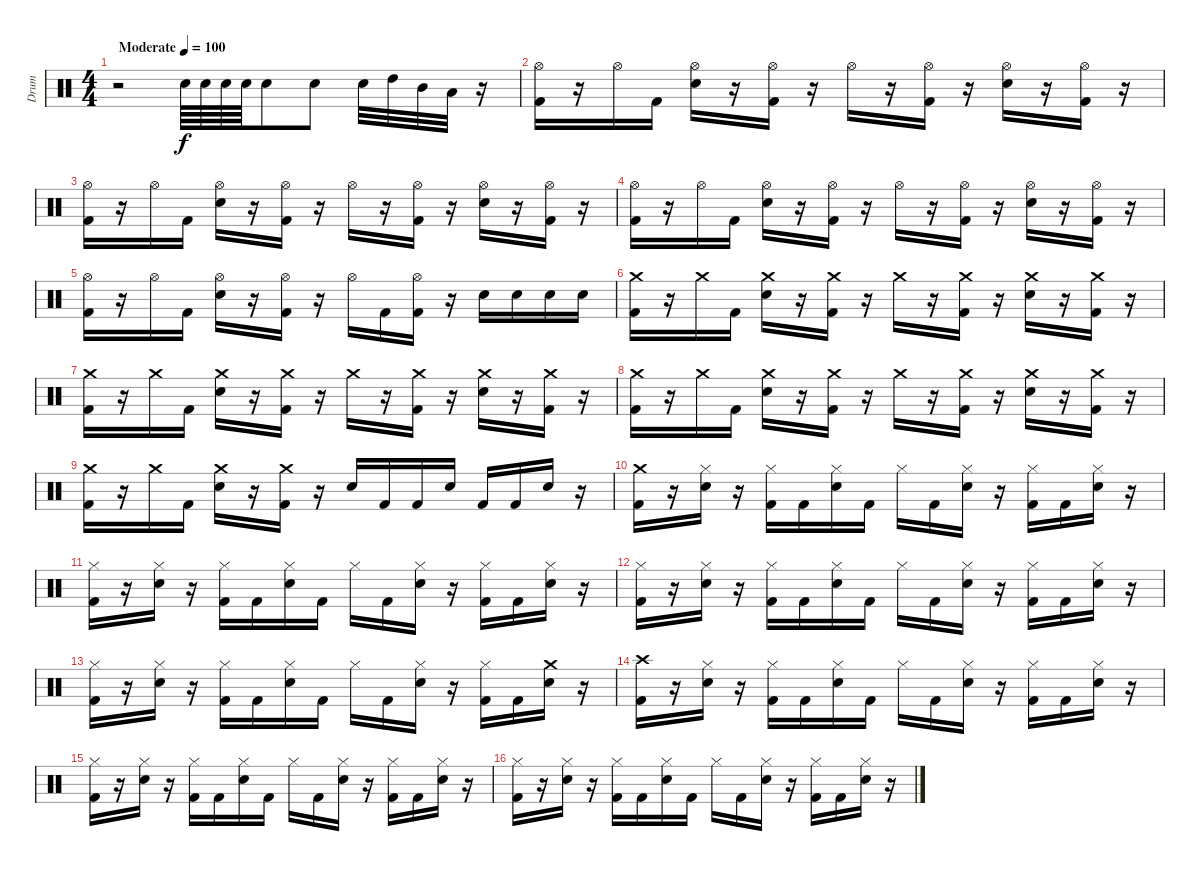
\track ("Drum" "Drum") {instrument percussion}
\staff {score}
\articulation defaults
\ts (4 4)
\tempo (100 "Moderate")
\clef neutral
\ks c
r.2{dy f} "Electric Snare (hit)".64 "Electric Snare (hit)".64 "Electric Snare (hit)".64 "Electric Snare (hit)".64 "Electric Snare (hit)".8 "Electric Snare (hit)".8 "Electric Snare (hit)".32 "High Tom (hit)".32 "Mid Tom (hit)".32 "Low Floor Tom (hit)".32 r.16 |
("Hi-Hat (open)" "Kick (hit) 2").16 r.16 "Hi-Hat (open)".16 "Kick (hit) 2".16 ("Hi-Hat (open)" "Electric Snare (hit)").16 r.16 ("Hi-Hat (open)" "Kick (hit) 2").16 r.16 "Hi-Hat (open)".16 r.16 ("Hi-Hat (open)" "Kick (hit) 2").16 r.16 ("Hi-Hat (open)" "Electric Snare (hit)").16 r.16 ("Hi-Hat (open)" "Kick (hit) 2").16 r.16 |
("Hi-Hat (open)" "Kick (hit) 2").16 r.16 "Hi-Hat (open)".16 "Kick (hit) 2".16 ("Hi-Hat (open)" "Electric Snare (hit)").16 r.16 ("Hi-Hat (open)" "Kick (hit) 2").16 r.16 "Hi-Hat (open)".16 r.16 ("Hi-Hat (open)" "Kick (hit) 2").16 r.16 ("Hi-Hat (open)" "Electric Snare (hit)").16 r.16 ("Hi-Hat (open)" "Kick (hit) 2").16 r.16 |
("Hi-Hat (open)" "Kick (hit) 2").16 r.16 "Hi-Hat (open)".16 "Kick (hit) 2".16 ("Hi-Hat (open)" "Electric Snare (hit)").16 r.16 ("Hi-Hat (open)" "Kick (hit) 2").16 r.16 "Hi-Hat (open)".16 r.16 ("Hi-Hat (open)" "Kick (hit) 2").16 r.16 ("Hi-Hat (open)" "Electric Snare (hit)").16 r.16 ("Hi-Hat (open)" "Kick (hit) 2").16 r.16 |
("Hi-Hat (open)" "Kick (hit) 2").16 r.16 "Hi-Hat (open)".16 "Kick (hit) 2".16 ("Hi-Hat (open)" "Electric Snare (hit)").16 r.16 ("Hi-Hat (open)" "Kick (hit) 2").16 r.16 "Hi-Hat (open)".16 "Kick (hit) 2".16 ("Hi-Hat (open)" "Kick (hit) 2").16 r.16 "Electric Snare (hit)".16 "Electric Snare (hit)".16 "Electric Snare (hit)".16 "Electric Snare (hit)".16 |
("Crash medium (hit)" "Kick (hit) 2").16 r.16 "Crash medium (hit)".16 "Kick (hit) 2".16 ("Crash medium (hit)" "Electric Snare (hit)").16 r.16 ("Crash medium (hit)" "Kick (hit) 2").16 r.16 "Crash medium (hit)".16 r.16 ("Crash medium (hit)" "Kick (hit) 2").16 r.16 ("Crash medium (hit)" "Electric Snare (hit)").16 r.16 ("Crash medium (hit)" "Kick (hit) 2").16 r.16 |
("Crash medium (hit)" "Kick (hit) 2").16 r.16 "Crash medium (hit)".16 "Kick (hit) 2".16 ("Crash medium (hit)" "Electric Snare (hit)").16 r.16 ("Crash medium (hit)" "Kick (hit) 2").16 r.16 "Crash medium (hit)".16 r.16 ("Crash medium (hit)" "Kick (hit) 2").16 r.16 ("Crash medium (hit)" "Electric Snare (hit)").16 r.16 ("Crash medium (hit)" "Kick (hit) 2").16 r.16 |
("Crash medium (hit)" "Kick (hit) 2").16 r.16 "Crash medium (hit)".16 "Kick (hit) 2".16 ("Crash medium (hit)" "Electric Snare (hit)").16 r.16 ("Crash medium (hit)" "Kick (hit) 2").16 r.16 "Crash medium (hit)".16 r.16 ("Crash medium (hit)" "Kick (hit) 2").16 r.16 ("Crash medium (hit)" "Electric Snare (hit)").16 r.16 ("Crash medium (hit)" "Kick (hit) 2").16 r.16 |
("Crash medium (hit)" "Kick (hit) 2").16 r.16 "Crash medium (hit)".16 "Kick (hit) 2".16 ("Crash medium (hit)" "Electric Snare (hit)").16 r.16 ("Crash medium (hit)" "Kick (hit) 2").16 r.16 "Electric Snare (hit)".16 "Kick (hit) 2".16 "Kick (hit) 2".16 "Electric Snare (hit)".16 "Kick (hit) 2".16 "Kick (hit) 2".16 "Electric Snare (hit)".16 r.16 |
("Crash medium (hit)" "Kick (hit) 2").16 r.16 ("Hi-Hat (closed)" "Electric Snare (hit)").16 r.16 ("Hi-Hat (closed)" "Kick (hit) 2").16 "Kick (hit) 2".16 ("Hi-Hat (closed)" "Electric Snare (hit)").16 "Kick (hit) 2".16 "Hi-Hat (closed)".16 "Kick (hit) 2".16 ("Hi-Hat (closed)" "Electric Snare (hit)").16 r.16 ("Hi-Hat (closed)" "Kick (hit) 2").16 "Kick (hit) 2".16 ("Hi-Hat (closed)" "Electric Snare (hit)").16 r.16 |
("Hi-Hat (closed)" "Kick (hit) 2").16 r.16 ("Hi-Hat (closed)" "Electric Snare (hit)").16 r.16 ("Hi-Hat (closed)" "Kick (hit) 2").16 "Kick (hit) 2".16 ("Hi-Hat (closed)" "Electric Snare (hit)").16 "Kick (hit) 2".16 "Hi-Hat (closed)".16 "Kick (hit) 2".16 ("Hi-Hat (closed)" "Electric Snare (hit)").16 r.16 ("Hi-Hat (closed)" "Kick (hit) 2").16 "Kick (hit) 2".16 ("Hi-Hat (closed)" "Electric Snare (hit)").16 r.16 |
("Hi-Hat (closed)" "Kick (hit) 2").16 r.16 ("Hi-Hat (closed)" "Electric Snare (hit)").16 r.16 ("Hi-Hat (closed)" "Kick (hit) 2").16 "Kick (hit) 2".16 ("Hi-Hat (closed)" "Electric Snare (hit)").16 "Kick (hit) 2".16 "Hi-Hat (closed)".16 "Kick (hit) 2".16 ("Hi-Hat (closed)" "Electric Snare (hit)").16 r.16 ("Hi-Hat (closed)" "Kick (hit) 2").16 "Kick (hit) 2".16 ("Hi-Hat (closed)" "Electric Snare (hit)").16 r.16 |
("Hi-Hat (closed)" "Kick (hit) 2").16 r.16 ("Hi-Hat (closed)" "Electric Snare (hit)").16 r.16 ("Hi-Hat (closed)" "Kick (hit) 2").16 "Kick (hit) 2".16 ("Hi-Hat (closed)" "Electric Snare (hit)").16 "Kick (hit) 2".16 "Hi-Hat (closed)".16 "Kick (hit) 2".16 ("Hi-Hat (closed)" "Electric Snare (hit)").16 r.16 ("Hi-Hat (closed)" "Kick (hit) 2").16 "Kick (hit) 2".16 ("Crash medium (hit)" "Electric Snare (hit)").16 r.16 |
("Crash high (hit)" "Kick (hit) 2").16 r.16 ("Hi-Hat (closed)" "Electric Snare (hit)").16 r.16 ("Hi-Hat (closed)" "Kick (hit) 2").16 "Kick (hit) 2".16 ("Hi-Hat (closed)" "Electric Snare (hit)").16 "Kick (hit) 2".16 "Hi-Hat (closed)".16 "Kick (hit) 2".16 ("Hi-Hat (closed)" "Electric Snare (hit)").16 r.16 ("Hi-Hat (closed)" "Kick (hit) 2").16 "Kick (hit) 2".16 ("Hi-Hat (closed)" "Electric Snare (hit)").16 r.16 |
("Hi-Hat (closed)" "Kick (hit) 2").16 r.16 ("Hi-Hat (closed)" "Electric Snare (hit)").16 r.16 ("Hi-Hat (closed)" "Kick (hit) 2").16 "Kick (hit) 2".16 ("Hi-Hat (closed)" "Electric Snare (hit)").16 "Kick (hit) 2".16 "Hi-Hat (closed)".16 "Kick (hit) 2".16 ("Hi-Hat (closed)" "Electric Snare (hit)").16 r.16 ("Hi-Hat (closed)" "Kick (hit) 2").16 "Kick (hit) 2".16 ("Hi-Hat (closed)" "Electric Snare (hit)").16 r.16 |
("Hi-Hat (closed)" "Kick (hit) 2").16 r.16 ("Hi-Hat (closed)" "Electric Snare (hit)").16 r.16 ("Hi-Hat (closed)" "Kick (hit) 2").16 "Kick (hit) 2".16 ("Hi-Hat (closed)" "Electric Snare (hit)").16 "Kick (hit) 2".16 "Hi-Hat (closed)".16 "Kick (hit) 2".16 ("Hi-Hat (closed)" "Electric Snare (hit)").16 r.16 ("Hi-Hat (closed)" "Kick (hit) 2").16 "Kick (hit) 2".16 ("Hi-Hat (closed)" "Electric Snare (hit)").16 r.16
